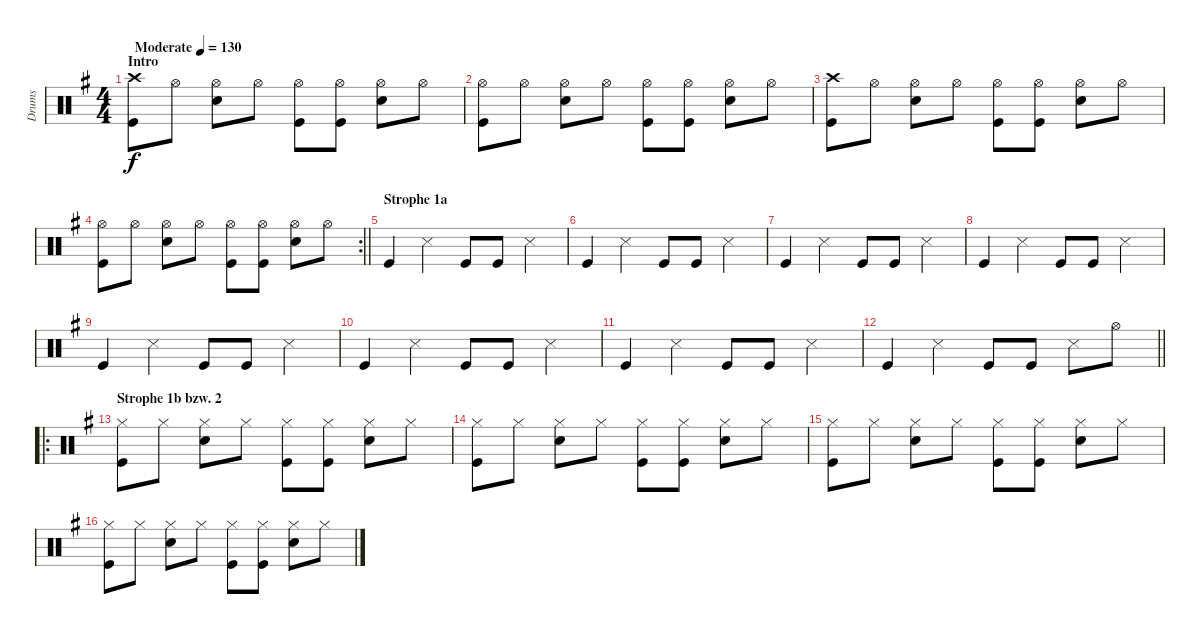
\track ("Drums" "Drums") {instrument percussion}
\staff {score}
\articulation defaults
\ts (4 4)
\section ("" "Intro")
\tempo (130 "Moderate")
\clef neutral
\ks g
("Crash high (hit)" "Kick (hit)").8{dy f} "Hi-Hat (open)".8 ("Hi-Hat (open)" "Snare (hit) 2").8 "Hi-Hat (open)".8 ("Hi-Hat (open)" "Kick (hit)").8 ("Hi-Hat (open)" "Kick (hit)").8 ("Hi-Hat (open)" "Snare (hit) 2").8 "Hi-Hat (open)".8 |
("Hi-Hat (open)" "Kick (hit)").8 "Hi-Hat (open)".8 ("Hi-Hat (open)" "Snare (hit) 2").8 "Hi-Hat (open)".8 ("Hi-Hat (open)" "Kick (hit)").8 ("Hi-Hat (open)" "Kick (hit)").8 ("Hi-Hat (open)" "Snare (hit) 2").8 "Hi-Hat (open)".8 |
("Crash high (hit)" "Kick (hit)").8 "Hi-Hat (open)".8 ("Hi-Hat (open)" "Snare (hit) 2").8 "Hi-Hat (open)".8 ("Hi-Hat (open)" "Kick (hit)").8 ("Hi-Hat (open)" "Kick (hit)").8 ("Hi-Hat (open)" "Snare (hit) 2").8 "Hi-Hat (open)".8 |
\rc 2
\barLineRight lightlight
("Hi-Hat (open)" "Kick (hit)").8 "Hi-Hat (open)".8 ("Hi-Hat (open)" "Snare (hit) 2").8 "Hi-Hat (open)".8 ("Hi-Hat (open)" "Kick (hit)").8 ("Hi-Hat (open)" "Kick (hit)").8 ("Hi-Hat (open)" "Snare (hit) 2").8 "Hi-Hat (open)".8 |
\section ("" "Strophe 1a")
"Kick (hit)".4 "Snare (side stick) 3".4 "Kick (hit)".8 "Kick (hit)".8 "Snare (side stick) 3".4 |
"Kick (hit)".4 "Snare (side stick) 3".4 "Kick (hit)".8 "Kick (hit)".8 "Snare (side stick) 3".4 |
"Kick (hit)".4 "Snare (side stick) 3".4 "Kick (hit)".8 "Kick (hit)".8 "Snare (side stick) 3".4 |
"Kick (hit)".4 "Snare (side stick) 3".4 "Kick (hit)".8 "Kick (hit)".8 "Snare (side stick) 3".4 |
"Kick (hit)".4 "Snare (side stick) 3".4 "Kick (hit)".8 "Kick (hit)".8 "Snare (side stick) 3".4 |
"Kick (hit)".4 "Snare (side stick) 3".4 "Kick (hit)".8 "Kick (hit)".8 "Snare (side stick) 3".4 |
"Kick (hit)".4 "Snare (side stick) 3".4 "Kick (hit)".8 "Kick (hit)".8 "Snare (side stick) 3".4 |
\barLineRight lightlight "Kick (hit)".4 "Snare (side stick) 3".4 "Kick (hit)".8 "Kick (hit)".8 "Snare (side stick) 3".8 "Hi-Hat (open)".8
|
\ro
\section ("" "Strophe 1b bzw. 2")
("Hi-Hat (closed)" "Kick (hit)").8 "Hi-Hat (closed)".8 ("Hi-Hat (closed)" "Snare (hit) 2").8 "Hi-Hat (closed)".8 ("Hi-Hat (closed)" "Kick (hit)").8 ("Hi-Hat (closed)" "Kick (hit)").8 ("Hi-Hat (closed)" "Snare (hit) 2").8 "Hi-Hat (closed)".8 |
("Hi-Hat (closed)" "Kick (hit)").8 "Hi-Hat (closed)".8 ("Hi-Hat (closed)" "Snare (hit) 2").8 "Hi-Hat (closed)".8 ("Hi-Hat (closed)" "Kick (hit)").8 ("Hi-Hat (closed)" "Kick (hit)").8 ("Hi-Hat (closed)" "Snare (hit) 2").8 "Hi-Hat (closed)".8 |
("Hi-Hat (closed)" "Kick (hit)").8 "Hi-Hat (closed)".8 ("Hi-Hat (closed)" "Snare (hit) 2").8 "Hi-Hat (closed)".8 ("Hi-Hat (closed)" "Kick (hit)").8 ("Hi-Hat (closed)" "Kick (hit)").8 ("Hi-Hat (closed)" "Snare (hit) 2").8 "Hi-Hat (closed)".8 |
("Hi-Hat (closed)" "Kick (hit)").8 "Hi-Hat (closed)".8 ("Hi-Hat (closed)" "Snare (hit) 2").8 "Hi-Hat (closed)".8 ("Hi-Hat (closed)" "Kick (hit)").8 ("Hi-Hat (closed)" "Kick (hit)").8 ("Hi-Hat (closed)" "Snare (hit) 2").8 "Hi-Hat (closed)".8
